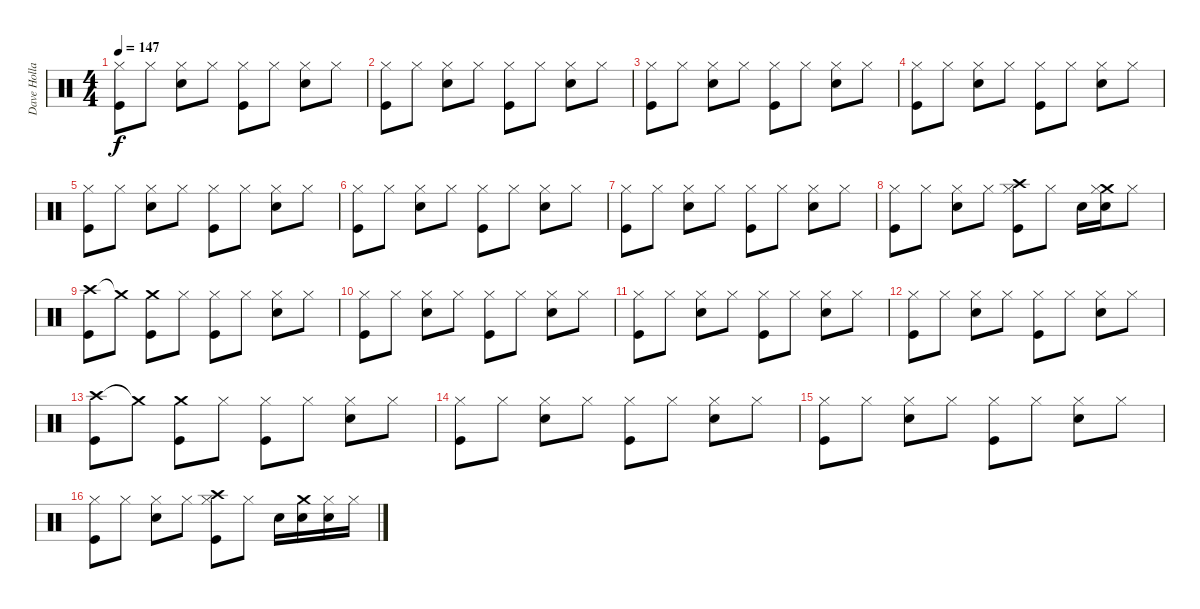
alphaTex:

\track ("Dave Holland" "Dave Holla") {instrument percussion}
\staff {score}
\articulation defaults
\ts (4 4)
\tempo 147
\clef neutral
\ks c
("Kick (hit)" "Hi-Hat (closed)").8{dy f} "Hi-Hat (closed)".8 ("Electric Snare (hit)" "Hi-Hat (closed)").8 "Hi-Hat (closed)".8 ("Kick (hit)" "Hi-Hat (closed)").8 "Hi-Hat (closed)".8 ("Electric Snare (hit)" "Hi-Hat (closed)").8 "Hi-Hat (closed)".8 |
("Kick (hit)" "Hi-Hat (closed)").8 "Hi-Hat (closed)".8 ("Electric Snare (hit)" "Hi-Hat (closed)").8 "Hi-Hat (closed)".8 ("Kick (hit)" "Hi-Hat (closed)").8 "Hi-Hat (closed)".8 ("Electric Snare (hit)" "Hi-Hat (closed)").8 "Hi-Hat (closed)".8 |
("Kick (hit)" "Hi-Hat (closed)").8 "Hi-Hat (closed)".8 ("Electric Snare (hit)" "Hi-Hat (closed)").8 "Hi-Hat (closed)".8 ("Kick (hit)" "Hi-Hat (closed)").8 "Hi-Hat (closed)".8 ("Electric Snare (hit)" "Hi-Hat (closed)").8 "Hi-Hat (closed)".8 |
("Kick (hit)" "Hi-Hat (closed)").8 "Hi-Hat (closed)".8 ("Electric Snare (hit)" "Hi-Hat (closed)").8 "Hi-Hat (closed)".8 ("Kick (hit)" "Hi-Hat (closed)").8 "Hi-Hat (closed)".8 ("Electric Snare (hit)" "Hi-Hat (closed)").8 "Hi-Hat (closed)".8 |
("Kick (hit)" "Hi-Hat (closed)").8 "Hi-Hat (closed)".8 ("Electric Snare (hit)" "Hi-Hat (closed)").8 "Hi-Hat (closed)".8 ("Kick (hit)" "Hi-Hat (closed)").8 "Hi-Hat (closed)".8 ("Electric Snare (hit)" "Hi-Hat (closed)").8 "Hi-Hat (closed)".8 |
("Kick (hit)" "Hi-Hat (closed)").8 "Hi-Hat (closed)".8 ("Electric Snare (hit)" "Hi-Hat (closed)").8 "Hi-Hat (closed)".8 ("Kick (hit)" "Hi-Hat (closed)").8 "Hi-Hat (closed)".8 ("Electric Snare (hit)" "Hi-Hat (closed)").8 "Hi-Hat (closed)".8 |
("Kick (hit)" "Hi-Hat (closed)").8 "Hi-Hat (closed)".8 ("Electric Snare (hit)" "Hi-Hat (closed)").8 "Hi-Hat (closed)".8 ("Kick (hit)" "Hi-Hat (closed)").8 "Hi-Hat (closed)".8 ("Electric Snare (hit)" "Hi-Hat (closed)").8 "Hi-Hat (closed)".8 |
("Kick (hit)" "Hi-Hat (closed)").8 "Hi-Hat (closed)".8 ("Electric Snare (hit)" "Hi-Hat (closed)").8 "Hi-Hat (closed)".8 ("Kick (hit)" "Crash high (hit)" "Hi-Hat (closed)").8 "Hi-Hat (closed)".8 "Electric Snare (hit)".16 ("Electric Snare (hit)" "Crash medium (hit)" "Hi-Hat (closed)").16 "Hi-Hat (closed)".8 |
("Crash high (hit)" "Kick (hit)").8 "Crash medium (hit)"{t}.8 ("Crash medium (hit)" "Kick (hit)").8 "Hi-Hat (closed)".8 ("Kick (hit)" "Hi-Hat (closed)").8 "Hi-Hat (closed)".8 ("Electric Snare (hit)" "Hi-Hat (closed)").8 "Hi-Hat (closed)".8 |
("Kick (hit)" "Hi-Hat (closed)").8 "Hi-Hat (closed)".8 ("Electric Snare (hit)" "Hi-Hat (closed)").8 "Hi-Hat (closed)".8 ("Kick (hit)" "Hi-Hat (closed)").8 "Hi-Hat (closed)".8 ("Electric Snare (hit)" "Hi-Hat (closed)").8 "Hi-Hat (closed)".8 |
("Kick (hit)" "Hi-Hat (closed)").8 "Hi-Hat (closed)".8 ("Electric Snare (hit)" "Hi-Hat (closed)").8 "Hi-Hat (closed)".8 ("Kick (hit)" "Hi-Hat (closed)").8 "Hi-Hat (closed)".8 ("Electric Snare (hit)" "Hi-Hat (closed)").8 "Hi-Hat (closed)".8 |
("Kick (hit)" "Hi-Hat (closed)").8 "Hi-Hat (closed)".8 ("Electric Snare (hit)" "Hi-Hat (closed)").8 "Hi-Hat (closed)".8 ("Kick (hit)" "Hi-Hat (closed)").8 "Hi-Hat (closed)".8 ("Electric Snare (hit)" "Hi-Hat (closed)").8 "Hi-Hat (closed)".8 |
("Crash high (hit)" "Kick (hit)").8 "Crash medium (hit)"{t}.8 ("Crash medium (hit)" "Kick (hit)").8 "Hi-Hat (closed)".8 ("Kick (hit)" "Hi-Hat (closed)").8 "Hi-Hat (closed)".8 ("Electric Snare (hit)" "Hi-Hat (closed)").8 "Hi-Hat (closed)".8 |
("Kick (hit)" "Hi-Hat (closed)").8 "Hi-Hat (closed)".8 ("Electric Snare (hit)" "Hi-Hat (closed)").8 "Hi-Hat (closed)".8 ("Kick (hit)" "Hi-Hat (closed)").8 "Hi-Hat (closed)".8 ("Electric Snare (hit)" "Hi-Hat (closed)").8 "Hi-Hat (closed)".8 |
("Kick (hit)" "Hi-Hat (closed)").8 "Hi-Hat (closed)".8 ("Electric Snare (hit)" "Hi-Hat (closed)").8 "Hi-Hat (closed)".8 ("Kick (hit)" "Hi-Hat (closed)").8 "Hi-Hat (closed)".8 ("Electric Snare (hit)" "Hi-Hat (closed)").8 "Hi-Hat (closed)".8 |
("Kick (hit)" "Hi-Hat (closed)").8 "Hi-Hat (closed)".8 ("Electric Snare (hit)" "Hi-Hat (closed)").8 "Hi-Hat (closed)".8 ("Kick (hit)" "Crash high (hit)" "Hi-Hat (closed)").8 "Hi-Hat (closed)".8 "Electric Snare (hit)".16 ("Electric Snare (hit)" "Crash medium (hit)").16 ("Electric Snare (hit)" "Hi-Hat (closed)").16 "Hi-Hat (closed)".16
